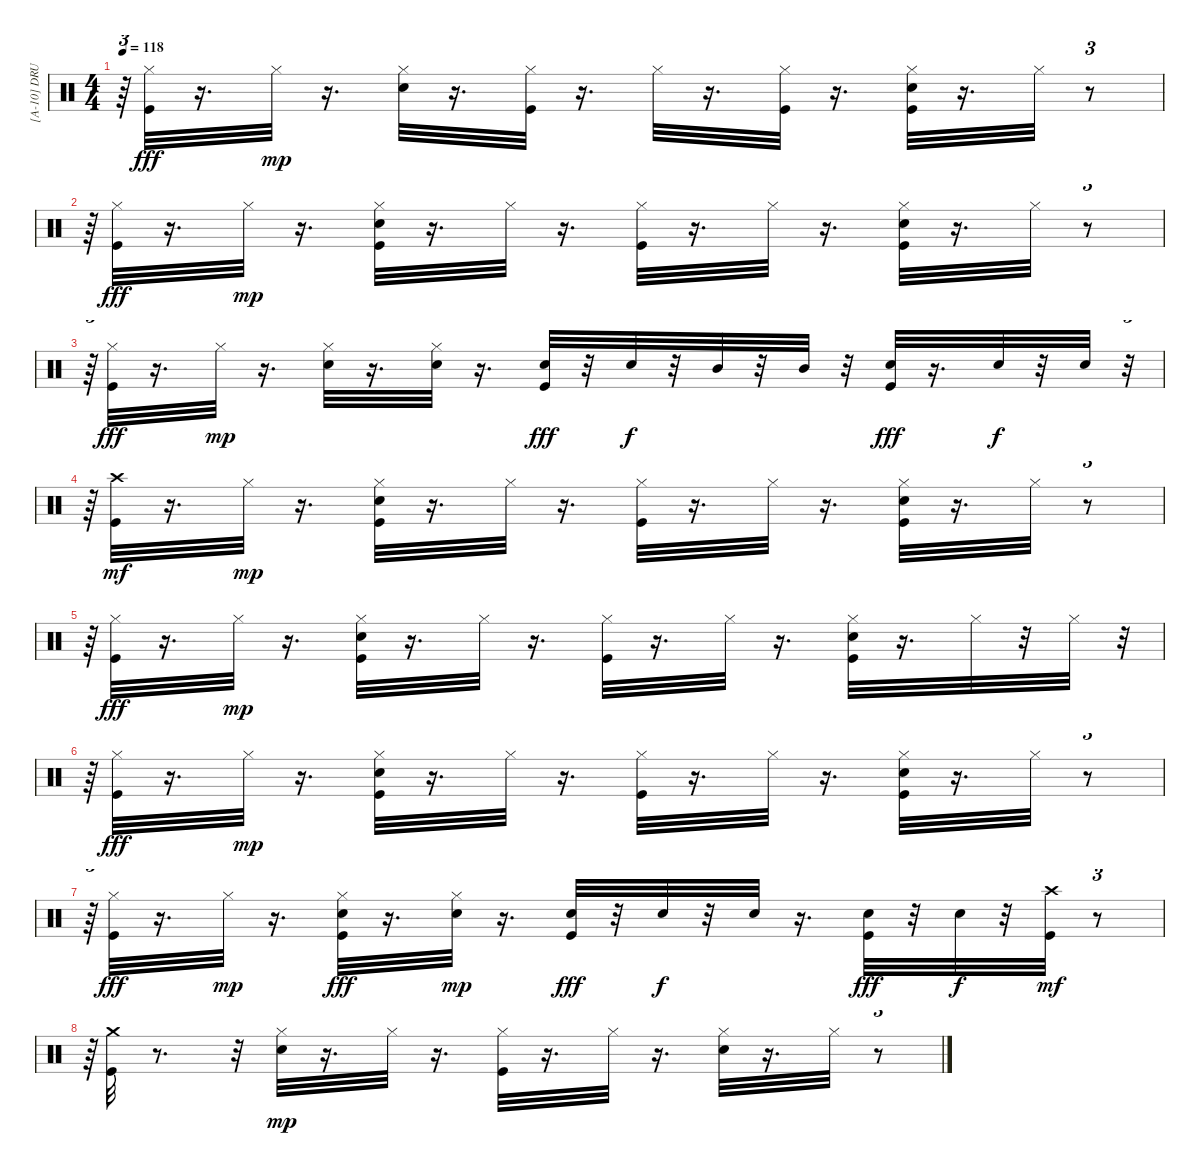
\track ("[A-10] DRUM" "[A-10] DRU") {instrument percussion}
\staff {score}
\articulation defaults
\ts (4 4)
\tempo 118
\clef neutral
\ks c
r.64{tu (3 2) dy mp} ("Hi-Hat (closed)" "Kick (hit)").32{dy fff} r.16{d} "Hi-Hat (closed)".32{dy mp} r.16{d} ("Snare (hit) 2" "Hi-Hat (closed)").32 r.16{d} ("Kick (hit)" "Hi-Hat (closed)").32 r.16{d} "Hi-Hat (closed)".32 r.16{d} ("Kick (hit)" "Hi-Hat (closed)").32 r.16{d} ("Kick (hit)" "Hi-Hat (closed)" "Snare (hit) 2").32 r.16{d} "Hi-Hat (closed)".32 r.8{tu (3 2)} |
r.64{tu (3 2)} ("Hi-Hat (closed)" "Kick (hit)").32{dy fff} r.16{d} "Hi-Hat (closed)".32{dy mp} r.16{d} ("Kick (hit)" "Hi-Hat (closed)" "Snare (hit) 2").32 r.16{d} "Hi-Hat (closed)".32 r.16{d} ("Kick (hit)" "Hi-Hat (closed)").32 r.16{d} "Hi-Hat (closed)".32 r.16{d} ("Kick (hit)" "Hi-Hat (closed)" "Snare (hit) 2").32 r.16{d} "Hi-Hat (closed)".32 r.8{tu (3 2)} |
r.64{tu (3 2)} ("Hi-Hat (closed)" "Kick (hit)").32{dy fff} r.16{d} "Hi-Hat (closed)".32{dy mp} r.16{d} ("Snare (hit) 2" "Hi-Hat (closed)").32 r.16{d} ("Snare (hit) 2" "Hi-Hat (closed)").32 r.16{d} ("Snare (hit) 2" "Kick (hit)").32{dy fff} r.32 "Snare (hit) 2".32{dy f} r.32 "Mid Tom (hit)".32 r.32 "Mid Tom (hit)".32 r.32 ("Snare (hit) 2" "Kick (hit)").32{dy fff} r.16{d} "Snare (hit) 2".32{dy f} r.32 "Snare (hit) 2".32 r.32{tu (3 2)} |
r.64{tu (3 2)} ("Kick (hit)" "Crash high (hit)").32{dy mf} r.16{d} "Hi-Hat (closed)".32{dy mp} r.16{d} ("Kick (hit)" "Hi-Hat (closed)" "Snare (hit) 2").32 r.16{d} "Hi-Hat (closed)".32 r.16{d} ("Kick (hit)" "Hi-Hat (closed)").32 r.16{d} "Hi-Hat (closed)".32 r.16{d} ("Kick (hit)" "Hi-Hat (closed)" "Snare (hit) 2").32 r.16{d} "Hi-Hat (closed)".32 r.8{tu (3 2)} |
r.64{tu (3 2)} ("Hi-Hat (closed)" "Kick (hit)").32{dy fff} r.16{d} "Hi-Hat (closed)".32{dy mp} r.16{d} ("Kick (hit)" "Hi-Hat (closed)" "Snare (hit) 2").32 r.16{d} "Hi-Hat (closed)".32 r.16{d} ("Kick (hit)" "Hi-Hat (closed)").32 r.16{d} "Hi-Hat (closed)".32 r.16{d} ("Kick (hit)" "Hi-Hat (closed)" "Snare (hit) 2").32 r.16{d} "Hi-Hat (closed)".32 r.32 "Hi-Hat (closed)".32 r.32{tu (3 2)} |
r.64{tu (3 2)} ("Hi-Hat (closed)" "Kick (hit)").32{dy fff} r.16{d} "Hi-Hat (closed)".32{dy mp} r.16{d} ("Kick (hit)" "Hi-Hat (closed)" "Snare (hit) 2").32 r.16{d} "Hi-Hat (closed)".32 r.16{d} ("Kick (hit)" "Hi-Hat (closed)").32 r.16{d} "Hi-Hat (closed)".32 r.16{d} ("Kick (hit)" "Hi-Hat (closed)" "Snare (hit) 2").32 r.16{d} "Hi-Hat (closed)".32 r.8{tu (3 2)} |
r.64{tu (3 2)} ("Hi-Hat (closed)" "Kick (hit)").32{dy fff} r.16{d} "Hi-Hat (closed)".32{dy mp} r.16{d} ("Snare (hit) 2" "Hi-Hat (closed)" "Kick (hit)").32{dy fff} r.16{d} ("Snare (hit) 2" "Hi-Hat (closed)").32{dy mp} r.16{d} ("Snare (hit) 2" "Kick (hit)").32{dy fff} r.32 "Snare (hit) 2".32{dy f} r.32 "Snare (hit) 2".32 r.16{d} ("Snare (hit) 2" "Kick (hit)").32{dy fff} r.32 "Snare (hit) 2".32{dy f} r.32 ("Kick (hit)" "Crash high (hit)").32{dy mf} r.8{tu (3 2)} |
r.64{tu (3 2)} ("Kick (hit)" "Crash medium (hit)").32 r.8{d} r.32 ("Snare (hit) 2" "Hi-Hat (closed)").32{dy mp} r.16{d} "Hi-Hat (closed)".32 r.16{d} ("Kick (hit)" "Hi-Hat (closed)").32 r.16{d} "Hi-Hat (closed)".32 r.16{d} ("Snare (hit) 2" "Hi-Hat (closed)").32 r.16{d} "Hi-Hat (closed)".32 r.8{tu (3 2)}
